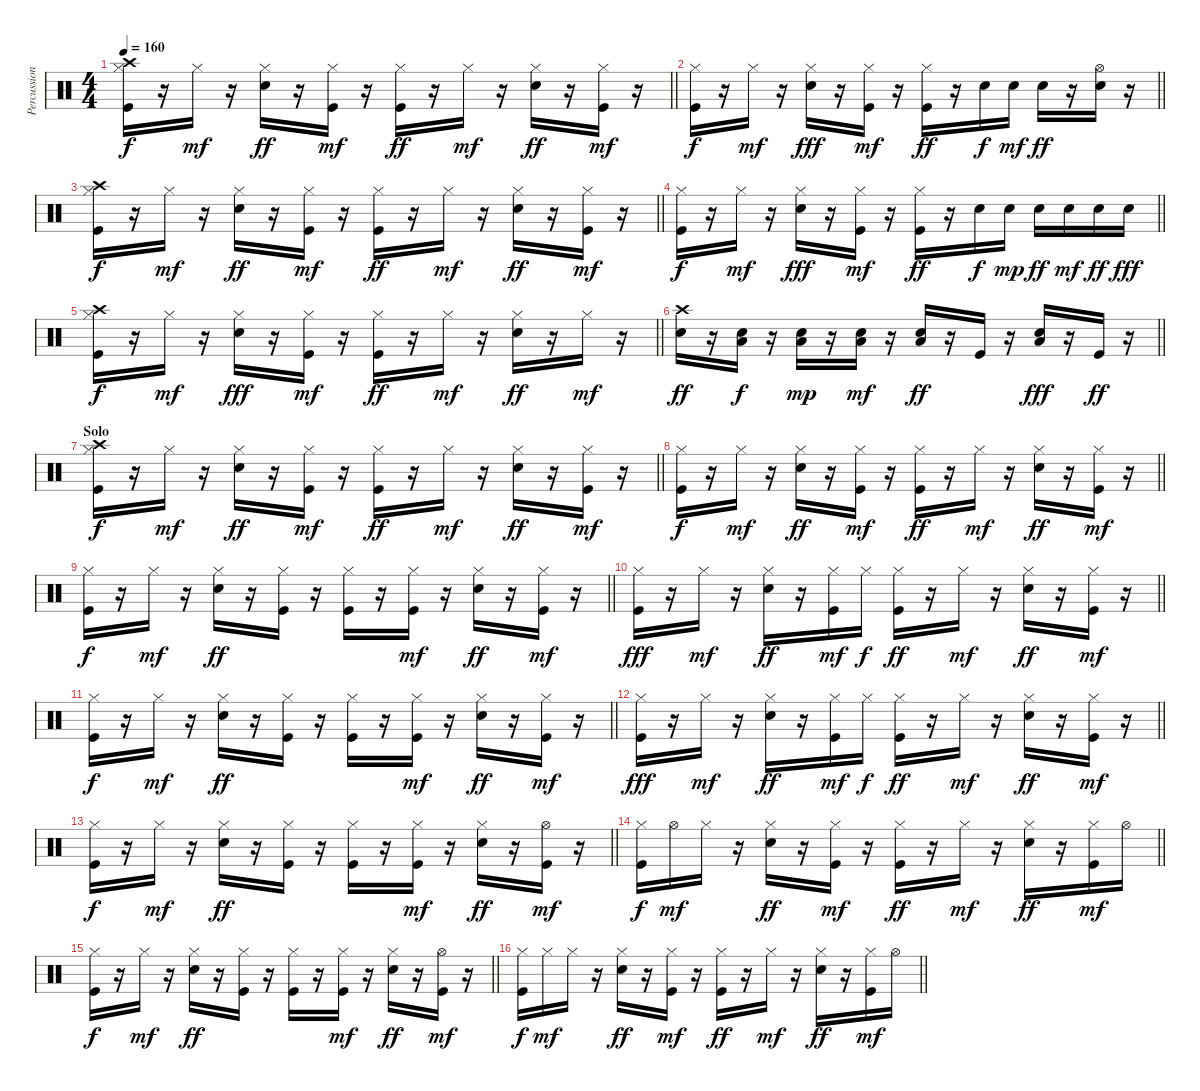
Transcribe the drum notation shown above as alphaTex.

\track ("Percussions" "Percussion") {instrument percussion}
\staff {score}
\articulation defaults
\ts (4 4)
\tempo 160
\clef neutral
\barLineRight lightlight
\ks c
("Kick (hit)" "Hi-Hat (closed)" "Crash high (hit)").16{dy f} r.16 "Hi-Hat (closed)".16{dy mf} r.16 ("Snare (hit) 2" "Hi-Hat (closed)").16{dy ff} r.16 ("Kick (hit)" "Hi-Hat (closed)").16{dy mf} r.16 ("Kick (hit)" "Hi-Hat (closed)").16{dy ff} r.16 "Hi-Hat (closed)".16{dy mf} r.16 ("Snare (hit) 2" "Hi-Hat (closed)").16{dy ff} r.16 ("Kick (hit)" "Hi-Hat (closed)").16{dy mf} r.16 |
\barLineRight lightlight
("Kick (hit)" "Hi-Hat (closed)").16{dy f} r.16 "Hi-Hat (closed)".16{dy mf} r.16 ("Snare (hit) 2" "Hi-Hat (closed)").16{dy fff} r.16 ("Kick (hit)" "Hi-Hat (closed)").16{dy mf} r.16 ("Kick (hit)" "Hi-Hat (closed)").16{dy ff} r.16 "Snare (hit) 2".16{dy f} "Snare (hit) 2".16{dy mf} "Snare (hit) 2".16{dy ff} r.16 ("Snare (hit) 2" "Hi-Hat (open)").16 r.16 |
\barLineRight lightlight
("Kick (hit)" "Hi-Hat (closed)" "Crash high (hit)").16{dy f} r.16 "Hi-Hat (closed)".16{dy mf} r.16 ("Snare (hit) 2" "Hi-Hat (closed)").16{dy ff} r.16 ("Kick (hit)" "Hi-Hat (closed)").16{dy mf} r.16 ("Kick (hit)" "Hi-Hat (closed)").16{dy ff} r.16 "Hi-Hat (closed)".16{dy mf} r.16 ("Snare (hit) 2" "Hi-Hat (closed)").16{dy ff} r.16 ("Kick (hit)" "Hi-Hat (closed)").16{dy mf} r.16 |
\barLineRight lightlight
("Kick (hit)" "Hi-Hat (closed)").16{dy f} r.16 "Hi-Hat (closed)".16{dy mf} r.16 ("Snare (hit) 2" "Hi-Hat (closed)").16{dy fff} r.16 ("Kick (hit)" "Hi-Hat (closed)").16{dy mf} r.16 ("Kick (hit)" "Hi-Hat (closed)").16{dy ff} r.16 "Snare (hit) 2".16{dy f} "Snare (hit) 2".16{dy mp} "Snare (hit) 2".16{dy ff} "Snare (hit) 2".16{dy mf} "Snare (hit) 2".16{dy ff} "Snare (hit) 2".16{dy fff} |
\barLineRight lightlight
("Kick (hit)" "Hi-Hat (closed)" "Crash high (hit)").16{dy f} r.16 "Hi-Hat (closed)".16{dy mf} r.16 ("Snare (hit) 2" "Hi-Hat (closed)").16{dy fff} r.16 ("Kick (hit)" "Hi-Hat (closed)").16{dy mf} r.16 ("Kick (hit)" "Hi-Hat (closed)").16{dy ff} r.16 "Hi-Hat (closed)".16{dy mf} r.16 ("Snare (hit) 2" "Hi-Hat (closed)").16{dy ff} r.16 "Hi-Hat (closed)".16{dy mf} r.16 |
\barLineRight lightlight
("Snare (hit) 2" "Crash high (hit)").16{dy ff} r.16 ("Snare (hit) 2" "Low Floor Tom (hit)").16{dy f} r.16 ("Snare (hit) 2" "Low Floor Tom (hit)").16{dy mp} r.16 ("Snare (hit) 2" "Low Floor Tom (hit)").16{dy mf} r.16 ("Snare (hit) 2" "Low Floor Tom (hit)").16{dy ff} r.16 "Kick (hit)".16 r.16 ("Snare (hit) 2" "Low Floor Tom (hit)").16{dy fff} r.16 "Kick (hit)".16{dy ff} r.16 |
\section ("" "Solo")
\barLineRight lightlight
("Kick (hit)" "Hi-Hat (closed)" "Crash high (hit)").16{dy f} r.16 "Hi-Hat (closed)".16{dy mf} r.16 ("Snare (hit) 2" "Hi-Hat (closed)").16{dy ff} r.16 ("Kick (hit)" "Hi-Hat (closed)").16{dy mf} r.16 ("Kick (hit)" "Hi-Hat (closed)").16{dy ff} r.16 "Hi-Hat (closed)".16{dy mf} r.16 ("Snare (hit) 2" "Hi-Hat (closed)").16{dy ff} r.16 ("Kick (hit)" "Hi-Hat (closed)").16{dy mf} r.16 |
\barLineRight lightlight
("Kick (hit)" "Hi-Hat (closed)").16{dy f} r.16 "Hi-Hat (closed)".16{dy mf} r.16 ("Snare (hit) 2" "Hi-Hat (closed)").16{dy ff} r.16 ("Kick (hit)" "Hi-Hat (closed)").16{dy mf} r.16 ("Kick (hit)" "Hi-Hat (closed)").16{dy ff} r.16 "Hi-Hat (closed)".16{dy mf} r.16 ("Snare (hit) 2" "Hi-Hat (closed)").16{dy ff} r.16 ("Kick (hit)" "Hi-Hat (closed)").16{dy mf} r.16 |
\barLineRight lightlight
("Kick (hit)" "Hi-Hat (closed)").16{dy f} r.16 "Hi-Hat (closed)".16{dy mf} r.16 ("Snare (hit) 2" "Hi-Hat (closed)").16{dy ff} r.16 ("Kick (hit)" "Hi-Hat (closed)").16 r.16 ("Kick (hit)" "Hi-Hat (closed)").16 r.16 ("Kick (hit)" "Hi-Hat (closed)").16{dy mf} r.16 ("Snare (hit) 2" "Hi-Hat (closed)").16{dy ff} r.16 ("Kick (hit)" "Hi-Hat (closed)").16{dy mf} r.16 |
\barLineRight lightlight
("Kick (hit)" "Hi-Hat (closed)").16{dy fff} r.16 "Hi-Hat (closed)".16{dy mf} r.16 ("Snare (hit) 2" "Hi-Hat (closed)").16{dy ff} r.16 ("Kick (hit)" "Hi-Hat (closed)").16{dy mf} "Hi-Hat (closed)".16{dy f} ("Kick (hit)" "Hi-Hat (closed)").16{dy ff} r.16 "Hi-Hat (closed)".16{dy mf} r.16 ("Snare (hit) 2" "Hi-Hat (closed)").16{dy ff} r.16 ("Kick (hit)" "Hi-Hat (closed)").16{dy mf} r.16 |
\barLineRight lightlight
("Kick (hit)" "Hi-Hat (closed)").16{dy f} r.16 "Hi-Hat (closed)".16{dy mf} r.16 ("Snare (hit) 2" "Hi-Hat (closed)").16{dy ff} r.16 ("Kick (hit)" "Hi-Hat (closed)").16 r.16 ("Kick (hit)" "Hi-Hat (closed)").16 r.16 ("Kick (hit)" "Hi-Hat (closed)").16{dy mf} r.16 ("Snare (hit) 2" "Hi-Hat (closed)").16{dy ff} r.16 ("Kick (hit)" "Hi-Hat (closed)").16{dy mf} r.16 |
\barLineRight lightlight
("Kick (hit)" "Hi-Hat (closed)").16{dy fff} r.16 "Hi-Hat (closed)".16{dy mf} r.16 ("Snare (hit) 2" "Hi-Hat (closed)").16{dy ff} r.16 ("Kick (hit)" "Hi-Hat (closed)").16{dy mf} "Hi-Hat (closed)".16{dy f} ("Kick (hit)" "Hi-Hat (closed)").16{dy ff} r.16 "Hi-Hat (closed)".16{dy mf} r.16 ("Snare (hit) 2" "Hi-Hat (closed)").16{dy ff} r.16 ("Kick (hit)" "Hi-Hat (closed)").16{dy mf} r.16 |
\barLineRight lightlight
("Kick (hit)" "Hi-Hat (closed)").16{dy f} r.16 "Hi-Hat (closed)".16{dy mf} r.16 ("Snare (hit) 2" "Hi-Hat (closed)").16{dy ff} r.16 ("Kick (hit)" "Hi-Hat (closed)").16 r.16 ("Kick (hit)" "Hi-Hat (closed)").16 r.16 ("Kick (hit)" "Hi-Hat (closed)").16{dy mf} r.16 ("Snare (hit) 2" "Hi-Hat (closed)").16{dy ff} r.16 ("Kick (hit)" "Hi-Hat (open)").16{dy mf} r.16 |
\barLineRight lightlight
("Kick (hit)" "Hi-Hat (closed)").16{dy f} "Hi-Hat (open)".16{dy mf} "Hi-Hat (closed)".16 r.16 ("Snare (hit) 2" "Hi-Hat (closed)").16{dy ff} r.16 ("Kick (hit)" "Hi-Hat (closed)").16{dy mf} r.16 ("Kick (hit)" "Hi-Hat (closed)").16{dy ff} r.16 "Hi-Hat (closed)".16{dy mf} r.16 ("Snare (hit) 2" "Hi-Hat (closed)").16{dy ff} r.16 ("Kick (hit)" "Hi-Hat (closed)").16{dy mf} "Hi-Hat (open)".16 |
\barLineRight lightlight
("Kick (hit)" "Hi-Hat (closed)").16{dy f} r.16 "Hi-Hat (closed)".16{dy mf} r.16 ("Snare (hit) 2" "Hi-Hat (closed)").16{dy ff} r.16 ("Kick (hit)" "Hi-Hat (closed)").16 r.16 ("Kick (hit)" "Hi-Hat (closed)").16 r.16 ("Kick (hit)" "Hi-Hat (closed)").16{dy mf} r.16 ("Snare (hit) 2" "Hi-Hat (closed)").16{dy ff} r.16 ("Kick (hit)" "Hi-Hat (open)").16{dy mf} r.16 |
\barLineRight lightlight
("Kick (hit)" "Hi-Hat (closed)").16{dy f} "Hi-Hat (closed)".16{dy mf} "Hi-Hat (closed)".16 r.16 ("Snare (hit) 2" "Hi-Hat (closed)").16{dy ff} r.16 ("Kick (hit)" "Hi-Hat (closed)").16{dy mf} r.16 ("Kick (hit)" "Hi-Hat (closed)").16{dy ff} r.16 "Hi-Hat (closed)".16{dy mf} r.16 ("Snare (hit) 2" "Hi-Hat (closed)").16{dy ff} r.16 ("Kick (hit)" "Hi-Hat (closed)").16{dy mf} "Hi-Hat (open)".16
